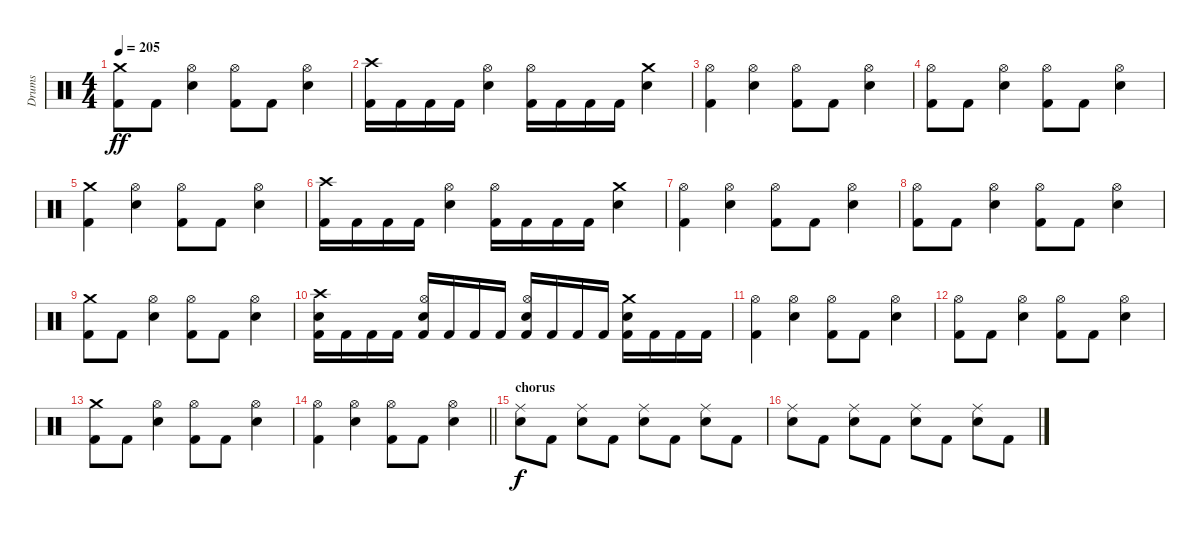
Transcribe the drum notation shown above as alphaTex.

\track ("Drums" "Drums") {instrument percussion}
\staff {score}
\articulation defaults
\ts (4 4)
\tempo 205
\clef neutral
\ks c
("Crash medium (hit)" "Kick (hit) 2").8{dy ff} "Kick (hit) 2".8 ("Hi-Hat (open)" "Snare (hit) 2").4 ("Hi-Hat (open)" "Kick (hit) 2").8 "Kick (hit) 2".8 ("Hi-Hat (open)" "Snare (hit) 2").4 |
("Crash high (hit)" "Kick (hit) 2").16 "Kick (hit) 2".16 "Kick (hit) 2".16 "Kick (hit) 2".16 ("Hi-Hat (open)" "Snare (hit) 2").4 ("Hi-Hat (open)" "Kick (hit) 2").16 "Kick (hit) 2".16 "Kick (hit) 2".16 "Kick (hit) 2".16 ("Crash medium (hit)" "Snare (hit) 2").4 |
("Hi-Hat (open)" "Kick (hit) 2").4 ("Hi-Hat (open)" "Snare (hit) 2").4 ("Hi-Hat (open)" "Kick (hit) 2").8 "Kick (hit) 2".8 ("Hi-Hat (open)" "Snare (hit) 2").4 |
("Hi-Hat (open)" "Kick (hit) 2").8 "Kick (hit) 2".8 ("Hi-Hat (open)" "Snare (hit) 2").4 ("Hi-Hat (open)" "Kick (hit) 2").8 "Kick (hit) 2".8 ("Hi-Hat (open)" "Snare (hit) 2").4 |
("Crash medium (hit)" "Kick (hit) 2").4 ("Hi-Hat (open)" "Snare (hit) 2").4 ("Hi-Hat (open)" "Kick (hit) 2").8 "Kick (hit) 2".8 ("Hi-Hat (open)" "Snare (hit) 2").4 |
("Crash high (hit)" "Kick (hit) 2").16 "Kick (hit) 2".16 "Kick (hit) 2".16 "Kick (hit) 2".16 ("Hi-Hat (open)" "Snare (hit) 2").4 ("Hi-Hat (open)" "Kick (hit) 2").16 "Kick (hit) 2".16 "Kick (hit) 2".16 "Kick (hit) 2".16 ("Crash medium (hit)" "Snare (hit) 2").4 |
("Hi-Hat (open)" "Kick (hit) 2").4 ("Hi-Hat (open)" "Snare (hit) 2").4 ("Hi-Hat (open)" "Kick (hit) 2").8 "Kick (hit) 2".8 ("Hi-Hat (open)" "Snare (hit) 2").4 |
("Hi-Hat (open)" "Kick (hit) 2").8 "Kick (hit) 2".8 ("Hi-Hat (open)" "Snare (hit) 2").4 ("Hi-Hat (open)" "Kick (hit) 2").8 "Kick (hit) 2".8 ("Hi-Hat (open)" "Snare (hit) 2").4 |
("Crash medium (hit)" "Kick (hit) 2").8 "Kick (hit) 2".8 ("Hi-Hat (open)" "Snare (hit) 2").4 ("Hi-Hat (open)" "Kick (hit) 2").8 "Kick (hit) 2".8 ("Hi-Hat (open)" "Snare (hit) 2").4 |
("Crash high (hit)" "Snare (hit) 2" "Kick (hit) 2").16 "Kick (hit) 2".16 "Kick (hit) 2".16 "Kick (hit) 2".16 ("Hi-Hat (open)" "Snare (hit) 2" "Kick (hit) 2").16 "Kick (hit) 2".16 "Kick (hit) 2".16 "Kick (hit) 2".16 ("Hi-Hat (open)" "Snare (hit) 2" "Kick (hit) 2").16 "Kick (hit) 2".16 "Kick (hit) 2".16 "Kick (hit) 2".16 ("Crash medium (hit)" "Snare (hit) 2" "Kick (hit) 2").16 "Kick (hit) 2".16 "Kick (hit) 2".16 "Kick (hit) 2".16 |
("Hi-Hat (open)" "Kick (hit) 2").4 ("Hi-Hat (open)" "Snare (hit) 2").4 ("Hi-Hat (open)" "Kick (hit) 2").8 "Kick (hit) 2".8 ("Hi-Hat (open)" "Snare (hit) 2").4 |
("Hi-Hat (open)" "Kick (hit) 2").8 "Kick (hit) 2".8 ("Hi-Hat (open)" "Snare (hit) 2").4 ("Hi-Hat (open)" "Kick (hit) 2").8 "Kick (hit) 2".8 ("Hi-Hat (open)" "Snare (hit) 2").4 |
("Crash medium (hit)" "Kick (hit) 2").8 "Kick (hit) 2".8 ("Hi-Hat (open)" "Snare (hit) 2").4 ("Hi-Hat (open)" "Kick (hit) 2").8 "Kick (hit) 2".8 ("Hi-Hat (open)" "Snare (hit) 2").4 |
\barLineRight lightlight
("Hi-Hat (open)" "Kick (hit) 2").4 ("Hi-Hat (open)" "Snare (hit) 2").4 ("Hi-Hat (open)" "Kick (hit) 2").8 "Kick (hit) 2".8 ("Hi-Hat (open)" "Snare (hit) 2").4 |
\section ("" "chorus")
("Ride (middle)" "Snare (hit) 2").8{dy f} "Kick (hit) 2".8 ("Ride (middle)" "Snare (hit) 2").8 "Kick (hit) 2".8 ("Ride (middle)" "Snare (hit) 2").8 "Kick (hit) 2".8 ("Ride (middle)" "Snare (hit) 2").8 "Kick (hit) 2".8 |
("Ride (middle)" "Snare (hit) 2").8 "Kick (hit) 2".8 ("Ride (middle)" "Snare (hit) 2").8 "Kick (hit) 2".8 ("Ride (middle)" "Snare (hit) 2").8 "Kick (hit) 2".8 ("Ride (middle)" "Snare (hit) 2").8 "Kick (hit) 2".8
